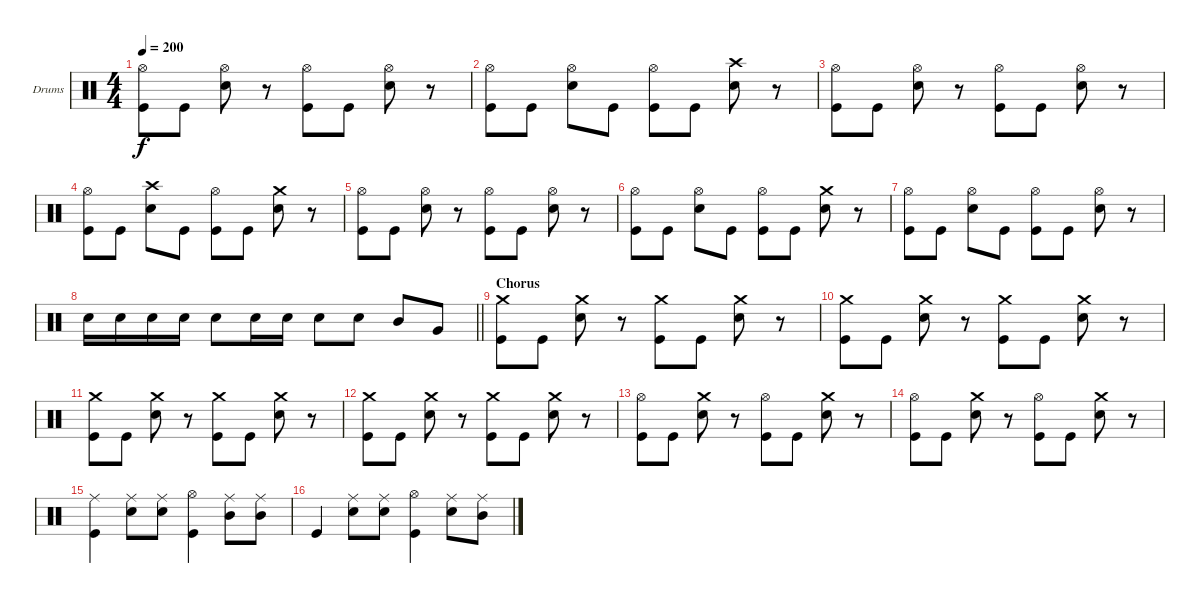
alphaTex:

\bracketExtendMode groupsimilarinstruments
\firstSystemTrackNameOrientation horizontal
\otherSystemsTrackNameOrientation horizontal
\track ("Drumkit" "Drums") {instrument percussion}
\staff {score}
\articulation defaults
\ts (4 4)
\tempo 200
\clef neutral
\ks c
("Hi-Hat (open)" "Kick (hit)").8{dy f} "Kick (hit)".8 ("Hi-Hat (open)" "Snare (hit) 2").8 r.8 ("Hi-Hat (open)" "Kick (hit)").8 "Kick (hit)".8 ("Hi-Hat (open)" "Snare (hit) 2").8 r.8 |
("Hi-Hat (open)" "Kick (hit)").8 "Kick (hit)".8 ("Hi-Hat (open)" "Snare (hit) 2").8 "Kick (hit)".8 ("Hi-Hat (open)" "Kick (hit)").8 "Kick (hit)".8 ("Snare (hit) 2" "Crash high (hit)").8 r.8 |
("Hi-Hat (open)" "Kick (hit)").8 "Kick (hit)".8 ("Hi-Hat (open)" "Snare (hit) 2").8 r.8 ("Hi-Hat (open)" "Kick (hit)").8 "Kick (hit)".8 ("Hi-Hat (open)" "Snare (hit) 2").8 r.8 |
("Hi-Hat (open)" "Kick (hit)").8 "Kick (hit)".8 ("Snare (hit) 2" "Crash high (hit)").8 "Kick (hit)".8 ("Hi-Hat (open)" "Kick (hit)").8 "Kick (hit)".8 ("Snare (hit) 2" "Crash medium (hit)").8 r.8 |
("Hi-Hat (open)" "Kick (hit)").8 "Kick (hit)".8 ("Hi-Hat (open)" "Snare (hit) 2").8 r.8 ("Hi-Hat (open)" "Kick (hit)").8 "Kick (hit)".8 ("Hi-Hat (open)" "Snare (hit) 2").8 r.8 |
("Hi-Hat (open)" "Kick (hit)").8 "Kick (hit)".8 ("Hi-Hat (open)" "Snare (hit) 2").8 "Kick (hit)".8 ("Hi-Hat (open)" "Kick (hit)").8 "Kick (hit)".8 ("Snare (hit) 2" "Crash medium (hit)").8 r.8 |
("Hi-Hat (open)" "Kick (hit)").8 "Kick (hit)".8 ("Hi-Hat (open)" "Snare (hit) 2").8 "Kick (hit)".8 ("Hi-Hat (open)" "Kick (hit)").8 "Kick (hit)".8 ("Hi-Hat (open)" "Snare (hit) 2").8 r.8 |
\barLineRight lightlight "Snare (hit) 2".16 "Snare (hit) 2".16 "Snare (hit) 2".16 "Snare (hit) 2".16 "Snare (hit) 2".8 "Snare (hit) 2".16 "Snare (hit) 2".16 "Snare (hit) 2".8 "Snare (hit) 2".8 "Mid Tom (hit)".8 "Very Low Tom (hit)".8
|
\section ("" "Chorus")
("Crash medium (hit)" "Kick (hit)").8 "Kick (hit)".8 ("Crash medium (hit)" "Snare (hit) 2").8 r.8 ("Crash medium (hit)" "Kick (hit)").8 "Kick (hit)".8 ("Crash medium (hit)" "Snare (hit) 2").8 r.8 |
("Crash medium (hit)" "Kick (hit)").8 "Kick (hit)".8 ("Crash medium (hit)" "Snare (hit) 2").8 r.8 ("Crash medium (hit)" "Kick (hit)").8 "Kick (hit)".8 ("Crash medium (hit)" "Snare (hit) 2").8 r.8 |
("Crash medium (hit)" "Kick (hit)").8 "Kick (hit)".8 ("Crash medium (hit)" "Snare (hit) 2").8 r.8 ("Crash medium (hit)" "Kick (hit)").8 "Kick (hit)".8 ("Crash medium (hit)" "Snare (hit) 2").8 r.8 |
("Crash medium (hit)" "Kick (hit)").8 "Kick (hit)".8 ("Crash medium (hit)" "Snare (hit) 2").8 r.8 ("Crash medium (hit)" "Kick (hit)").8 "Kick (hit)".8 ("Crash medium (hit)" "Snare (hit) 2").8 r.8 |
("Kick (hit)" "Hi-Hat (open)").8 "Kick (hit)".8 ("Crash medium (hit)" "Snare (hit) 2").8 r.8 ("Kick (hit)" "Hi-Hat (open)").8 "Kick (hit)".8 ("Crash medium (hit)" "Snare (hit) 2").8 r.8 |
("Kick (hit)" "Hi-Hat (open)").8 "Kick (hit)".8 ("Crash medium (hit)" "Snare (hit) 2").8 r.8 ("Kick (hit)" "Hi-Hat (open)").8 "Kick (hit)".8 ("Crash medium (hit)" "Snare (hit) 2").8 r.8 |
("Ride (middle)" "Kick (hit)").4 ("Ride (middle)" "Snare (hit) 2").8 ("Ride (middle)" "Snare (hit) 2").8 ("Hi-Hat (open)" "Kick (hit)").4 ("Ride (middle)" "Mid Tom (hit)").8 ("Ride (middle)" "Mid Tom (hit)").8 |
"Kick (hit)".4 ("Ride (middle)" "Snare (hit) 2").8 ("Ride (middle)" "Snare (hit) 2").8 ("Hi-Hat (open)" "Kick (hit)").4 ("Ride (middle)" "Snare (hit) 2").8 ("Ride (middle)" "Mid Tom (hit)").8
